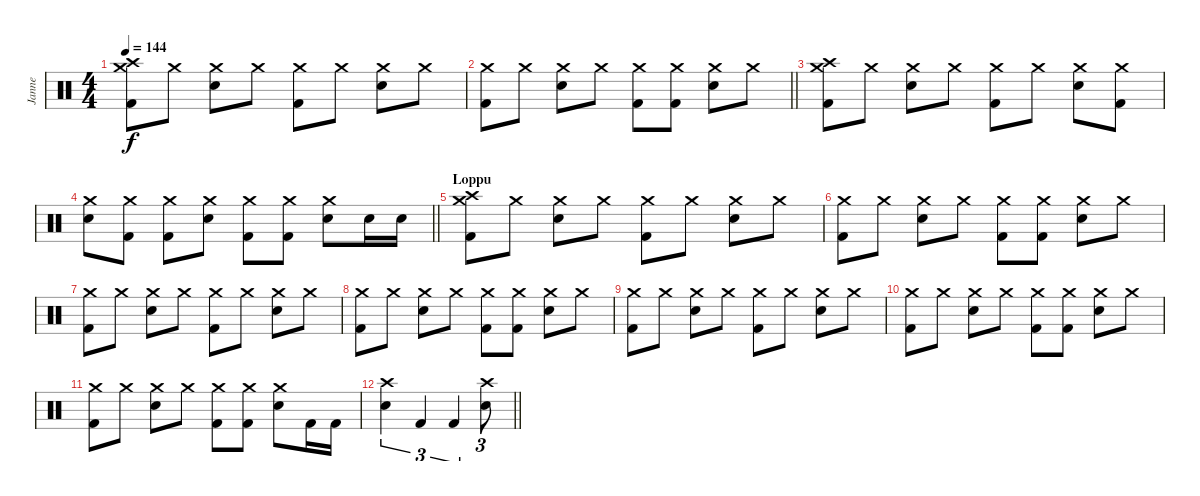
\track ("Janne" "Janne") {instrument percussion}
\staff {score}
\articulation defaults
\ts (4 4)
\tempo 144
\clef neutral
\ks c
("Crash medium (hit)" "Crash high (hit)" "Kick (hit) 2").8{dy f} "Crash medium (hit)".8 ("Crash medium (hit)" "Electric Snare (hit)").8 "Crash medium (hit)".8 ("Crash medium (hit)" "Kick (hit) 2").8 "Crash medium (hit)".8 ("Crash medium (hit)" "Electric Snare (hit)").8 "Crash medium (hit)".8 |
\barLineRight lightlight
("Crash medium (hit)" "Kick (hit) 2").8 "Crash medium (hit)".8 ("Crash medium (hit)" "Electric Snare (hit)").8 "Crash medium (hit)".8 ("Crash medium (hit)" "Kick (hit) 2").8 ("Crash medium (hit)" "Kick (hit) 2").8 ("Crash medium (hit)" "Electric Snare (hit)").8 "Crash medium (hit)".8 |
("Crash medium (hit)" "Crash high (hit)" "Kick (hit) 2").8 "Crash medium (hit)".8 ("Crash medium (hit)" "Electric Snare (hit)").8 "Crash medium (hit)".8 ("Crash medium (hit)" "Kick (hit) 2").8 "Crash medium (hit)".8 ("Crash medium (hit)" "Electric Snare (hit)").8 ("Crash medium (hit)" "Kick (hit) 2").8 |
\barLineRight lightlight
("Crash medium (hit)" "Electric Snare (hit)").8 ("Crash medium (hit)" "Kick (hit) 2").8 ("Crash medium (hit)" "Kick (hit) 2").8 ("Crash medium (hit)" "Electric Snare (hit)").8 ("Crash medium (hit)" "Kick (hit) 2").8 ("Crash medium (hit)" "Kick (hit) 2").8 ("Crash medium (hit)" "Electric Snare (hit)").8 "Electric Snare (hit)".16 "Electric Snare (hit)".16 |
\section ("" "Loppu")
("Crash high (hit)" "Crash medium (hit)" "Kick (hit) 2").8 "Crash medium (hit)".8 ("Crash medium (hit)" "Electric Snare (hit)").8 "Crash medium (hit)".8 ("Crash medium (hit)" "Kick (hit) 2").8 "Crash medium (hit)".8 ("Crash medium (hit)" "Electric Snare (hit)").8 "Crash medium (hit)".8 |
("Crash medium (hit)" "Kick (hit) 2").8 "Crash medium (hit)".8 ("Crash medium (hit)" "Electric Snare (hit)").8 "Crash medium (hit)".8 ("Crash medium (hit)" "Kick (hit) 2").8 ("Crash medium (hit)" "Kick (hit) 2").8 ("Crash medium (hit)" "Electric Snare (hit)").8 "Crash medium (hit)".8 |
("Crash medium (hit)" "Kick (hit) 2").8 "Crash medium (hit)".8 ("Crash medium (hit)" "Electric Snare (hit)").8 "Crash medium (hit)".8 ("Crash medium (hit)" "Kick (hit) 2").8 "Crash medium (hit)".8 ("Crash medium (hit)" "Electric Snare (hit)").8 "Crash medium (hit)".8 |
("Crash medium (hit)" "Kick (hit) 2").8 "Crash medium (hit)".8 ("Crash medium (hit)" "Electric Snare (hit)").8 "Crash medium (hit)".8 ("Crash medium (hit)" "Kick (hit) 2").8 ("Crash medium (hit)" "Kick (hit) 2").8 ("Crash medium (hit)" "Electric Snare (hit)").8 "Crash medium (hit)".8 |
("Crash medium (hit)" "Kick (hit) 2").8 "Crash medium (hit)".8 ("Crash medium (hit)" "Electric Snare (hit)").8 "Crash medium (hit)".8 ("Crash medium (hit)" "Kick (hit) 2").8 "Crash medium (hit)".8 ("Crash medium (hit)" "Electric Snare (hit)").8 "Crash medium (hit)".8 |
("Crash medium (hit)" "Kick (hit) 2").8 "Crash medium (hit)".8 ("Crash medium (hit)" "Electric Snare (hit)").8 "Crash medium (hit)".8 ("Crash medium (hit)" "Kick (hit) 2").8 ("Crash medium (hit)" "Kick (hit) 2").8 ("Crash medium (hit)" "Electric Snare (hit)").8 "Crash medium (hit)".8 |
("Crash medium (hit)" "Kick (hit) 2").8 "Crash medium (hit)".8 ("Crash medium (hit)" "Electric Snare (hit)").8 "Crash medium (hit)".8 ("Crash medium (hit)" "Kick (hit) 2").8 ("Crash medium (hit)" "Kick (hit) 2").8 ("Crash medium (hit)" "Electric Snare (hit)").8 "Kick (hit) 2".16 "Kick (hit) 2".16 |
\barLineRight lightlight
("Crash high (hit)" "Electric Snare (hit)").4{tu (3 2)} "Kick (hit) 2".4{tu (3 2)} "Kick (hit) 2".4{tu (3 2)} ("Crash high (hit)" "Electric Snare (hit)").8{tu (3 2)}
